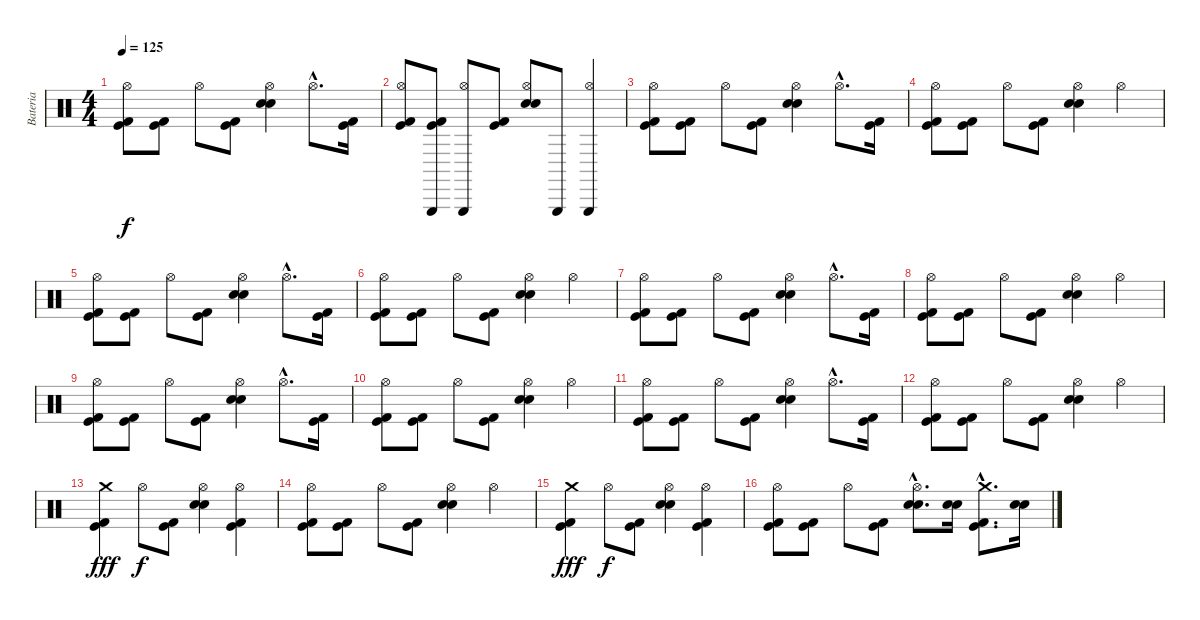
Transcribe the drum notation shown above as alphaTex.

\track ("Bateria" "Bateria") {instrument percussion}
\staff {score}
\articulation defaults
\ts (4 4)
\tempo 125
\clef neutral
\ks c
("Hi-Hat (open)" "Kick (hit) 2" "Kick (hit)").8{dy f} ("Kick (hit) 2" "Kick (hit)").8 "Hi-Hat (open)".8 ("Kick (hit) 2" "Kick (hit)").8 ("Hi-Hat (open)" "Electric Snare (hit)" "Snare (hit) 2").4 "Hi-Hat (open)"{hac}.8{d} ("Kick (hit) 2" "Kick (hit)").16 |
("Hi-Hat (open)" "Kick (hit) 2" "Kick (hit)").8 ("Triangle (hit)" "Kick (hit) 2" "Kick (hit)").8 ("Triangle (hit)" "Hi-Hat (open)").8 ("Kick (hit) 2" "Kick (hit)").8 ("Hi-Hat (open)" "Electric Snare (hit)" "Snare (hit) 2").8 "Triangle (hit)".8 ("Triangle (hit)" "Hi-Hat (open)").4 |
("Hi-Hat (open)" "Kick (hit) 2" "Kick (hit)").8 ("Kick (hit) 2" "Kick (hit)").8 "Hi-Hat (open)".8 ("Kick (hit) 2" "Kick (hit)").8 ("Hi-Hat (open)" "Electric Snare (hit)" "Snare (hit) 2").4 "Hi-Hat (open)"{hac}.8{d} ("Kick (hit) 2" "Kick (hit)").16 |
("Hi-Hat (open)" "Kick (hit) 2" "Kick (hit)").8 ("Kick (hit) 2" "Kick (hit)").8 "Hi-Hat (open)".8 ("Kick (hit) 2" "Kick (hit)").8 ("Hi-Hat (open)" "Electric Snare (hit)" "Snare (hit) 2").4 "Hi-Hat (open)".4 |
("Hi-Hat (open)" "Kick (hit) 2" "Kick (hit)").8 ("Kick (hit) 2" "Kick (hit)").8 "Hi-Hat (open)".8 ("Kick (hit) 2" "Kick (hit)").8 ("Hi-Hat (open)" "Electric Snare (hit)" "Snare (hit) 2").4 "Hi-Hat (open)"{hac}.8{d} ("Kick (hit) 2" "Kick (hit)").16 |
("Hi-Hat (open)" "Kick (hit) 2" "Kick (hit)").8 ("Kick (hit) 2" "Kick (hit)").8 "Hi-Hat (open)".8 ("Kick (hit) 2" "Kick (hit)").8 ("Hi-Hat (open)" "Electric Snare (hit)" "Snare (hit) 2").4 "Hi-Hat (open)".4 |
("Hi-Hat (open)" "Kick (hit) 2" "Kick (hit)").8 ("Kick (hit) 2" "Kick (hit)").8 "Hi-Hat (open)".8 ("Kick (hit) 2" "Kick (hit)").8 ("Hi-Hat (open)" "Electric Snare (hit)" "Snare (hit) 2").4 "Hi-Hat (open)"{hac}.8{d} ("Kick (hit) 2" "Kick (hit)").16 |
("Hi-Hat (open)" "Kick (hit) 2" "Kick (hit)").8 ("Kick (hit) 2" "Kick (hit)").8 "Hi-Hat (open)".8 ("Kick (hit) 2" "Kick (hit)").8 ("Hi-Hat (open)" "Electric Snare (hit)" "Snare (hit) 2").4 "Hi-Hat (open)".4 |
("Hi-Hat (open)" "Kick (hit) 2" "Kick (hit)").8 ("Kick (hit) 2" "Kick (hit)").8 "Hi-Hat (open)".8 ("Kick (hit) 2" "Kick (hit)").8 ("Hi-Hat (open)" "Electric Snare (hit)" "Snare (hit) 2").4 "Hi-Hat (open)"{hac}.8{d} ("Kick (hit) 2" "Kick (hit)").16 |
("Hi-Hat (open)" "Kick (hit) 2" "Kick (hit)").8 ("Kick (hit) 2" "Kick (hit)").8 "Hi-Hat (open)".8 ("Kick (hit) 2" "Kick (hit)").8 ("Hi-Hat (open)" "Electric Snare (hit)" "Snare (hit) 2").4 "Hi-Hat (open)".4 |
("Hi-Hat (open)" "Kick (hit) 2" "Kick (hit)").8 ("Kick (hit) 2" "Kick (hit)").8 "Hi-Hat (open)".8 ("Kick (hit) 2" "Kick (hit)").8 ("Hi-Hat (open)" "Electric Snare (hit)" "Snare (hit) 2").4 "Hi-Hat (open)"{hac}.8{d} ("Kick (hit) 2" "Kick (hit)").16 |
("Hi-Hat (open)" "Kick (hit) 2" "Kick (hit)").8 ("Kick (hit) 2" "Kick (hit)").8 "Hi-Hat (open)".8 ("Kick (hit) 2" "Kick (hit)").8 ("Hi-Hat (open)" "Electric Snare (hit)" "Snare (hit) 2").4 "Hi-Hat (open)".4 |
("Crash medium (hit)" "Kick (hit) 2" "Kick (hit)").4{dy fff} "Hi-Hat (open)".8{dy f} ("Kick (hit) 2" "Kick (hit)").8 ("Hi-Hat (open)" "Electric Snare (hit)" "Snare (hit) 2").4 ("Hi-Hat (open)" "Kick (hit) 2" "Kick (hit)").4 |
("Hi-Hat (open)" "Kick (hit) 2" "Kick (hit)").8 ("Kick (hit) 2" "Kick (hit)").8 "Hi-Hat (open)".8 ("Kick (hit) 2" "Kick (hit)").8 ("Hi-Hat (open)" "Electric Snare (hit)" "Snare (hit) 2").4 "Hi-Hat (open)".4 |
("Crash medium (hit)" "Kick (hit) 2" "Kick (hit)").4{dy fff} "Hi-Hat (open)".8{dy f} ("Kick (hit) 2" "Kick (hit)").8 ("Hi-Hat (open)" "Electric Snare (hit)" "Snare (hit) 2").4 ("Hi-Hat (open)" "Kick (hit) 2" "Kick (hit)").4 |
("Hi-Hat (open)" "Kick (hit) 2" "Kick (hit)").8 ("Kick (hit) 2" "Kick (hit)").8 "Hi-Hat (open)".8 ("Kick (hit) 2" "Kick (hit)").8 ("Hi-Hat (open)"{hac} "Electric Snare (hit)"{hac} "Snare (hit) 2"{hac}).8{d} ("Electric Snare (hit)" "Snare (hit) 2").16 ("Crash medium (hit)"{hac} "Kick (hit) 2"{hac} "Kick (hit)"{hac}).8{d} ("Electric Snare (hit)" "Snare (hit) 2").16
